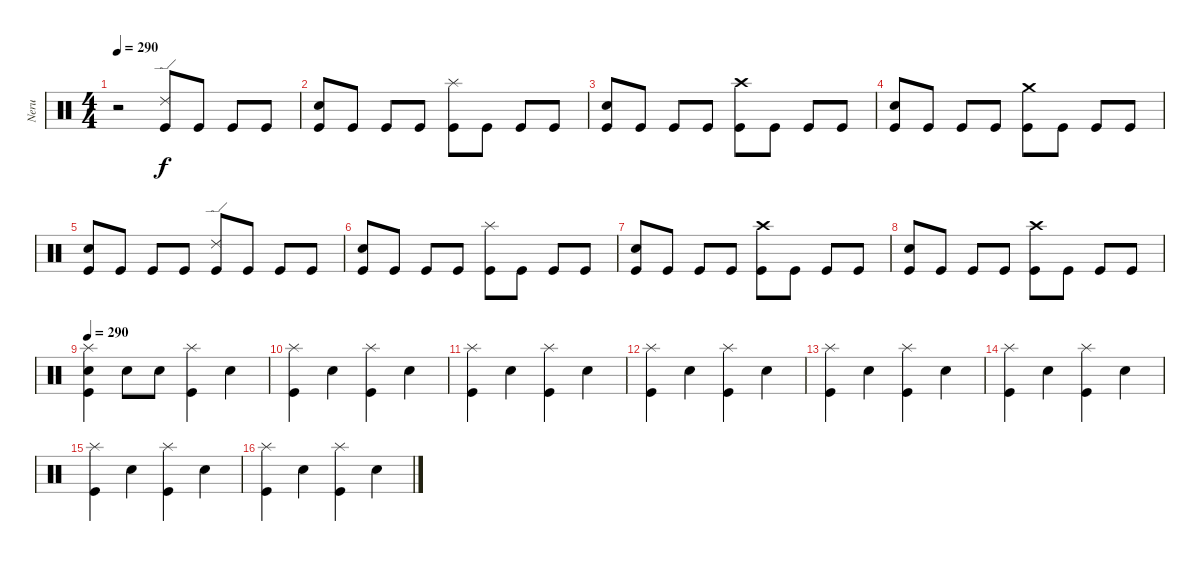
\track ("Neru" "Neru") {instrument percussion}
\staff {score}
\articulation defaults
\ts (4 4)
\tempo 290
\clef neutral
\ks c
r.2{dy f} ("Ride (edge) 2" "Kick (hit)").8 "Kick (hit)".8 "Kick (hit)".8 "Kick (hit)".8 |
("Electric Snare (hit)" "Kick (hit)").8 "Kick (hit)".8 "Kick (hit)".8 "Kick (hit)".8 ("Splash (hit)" "Kick (hit)").8 "Kick (hit)".8 "Kick (hit)".8 "Kick (hit)".8 |
("Electric Snare (hit)" "Kick (hit)").8 "Kick (hit)".8 "Kick (hit)".8 "Kick (hit)".8 ("Crash high (hit)" "Kick (hit)").8 "Kick (hit)".8 "Kick (hit)".8 "Kick (hit)".8 |
("Electric Snare (hit)" "Kick (hit)").8 "Kick (hit)".8 "Kick (hit)".8 "Kick (hit)".8 ("Crash medium (hit)" "Kick (hit)").8 "Kick (hit)".8 "Kick (hit)".8 "Kick (hit)".8 |
("Electric Snare (hit)" "Kick (hit)").8 "Kick (hit)".8 "Kick (hit)".8 "Kick (hit)".8 ("Ride (edge) 2" "Kick (hit)").8 "Kick (hit)".8 "Kick (hit)".8 "Kick (hit)".8 |
("Electric Snare (hit)" "Kick (hit)").8 "Kick (hit)".8 "Kick (hit)".8 "Kick (hit)".8 ("Splash (hit)" "Kick (hit)").8 "Kick (hit)".8 "Kick (hit)".8 "Kick (hit)".8 |
("Electric Snare (hit)" "Kick (hit)").8 "Kick (hit)".8 "Kick (hit)".8 "Kick (hit)".8 ("Crash high (hit)" "Kick (hit)").8 "Kick (hit)".8 "Kick (hit)".8 "Kick (hit)".8 |
("Electric Snare (hit)" "Kick (hit)").8 "Kick (hit)".8 "Kick (hit)".8 "Kick (hit)".8 ("Crash high (hit)" "Kick (hit)").8 "Kick (hit)".8 "Kick (hit)".8 "Kick (hit)".8 |
\tempo 290
("Splash (hit)" "Electric Snare (hit)" "Kick (hit)").4 "Electric Snare (hit)".8 "Electric Snare (hit)".8 ("Splash (hit)" "Kick (hit)").4 "Electric Snare (hit)".4 |
("Splash (hit)" "Kick (hit)").4 "Electric Snare (hit)".4 ("Splash (hit)" "Kick (hit)").4 "Electric Snare (hit)".4 |
("Splash (hit)" "Kick (hit)").4 "Electric Snare (hit)".4 ("Splash (hit)" "Kick (hit)").4 "Electric Snare (hit)".4 |
("Splash (hit)" "Kick (hit)").4 "Electric Snare (hit)".4 ("Splash (hit)" "Kick (hit)").4 "Electric Snare (hit)".4 |
("Splash (hit)" "Kick (hit)").4 "Electric Snare (hit)".4 ("Splash (hit)" "Kick (hit)").4 "Electric Snare (hit)".4 |
("Splash (hit)" "Kick (hit)").4 "Electric Snare (hit)".4 ("Splash (hit)" "Kick (hit)").4 "Electric Snare (hit)".4 |
("Splash (hit)" "Kick (hit)").4 "Electric Snare (hit)".4 ("Splash (hit)" "Kick (hit)").4 "Electric Snare (hit)".4 |
("Splash (hit)" "Kick (hit)").4 "Electric Snare (hit)".4 ("Splash (hit)" "Kick (hit)").4 "Electric Snare (hit)".4
